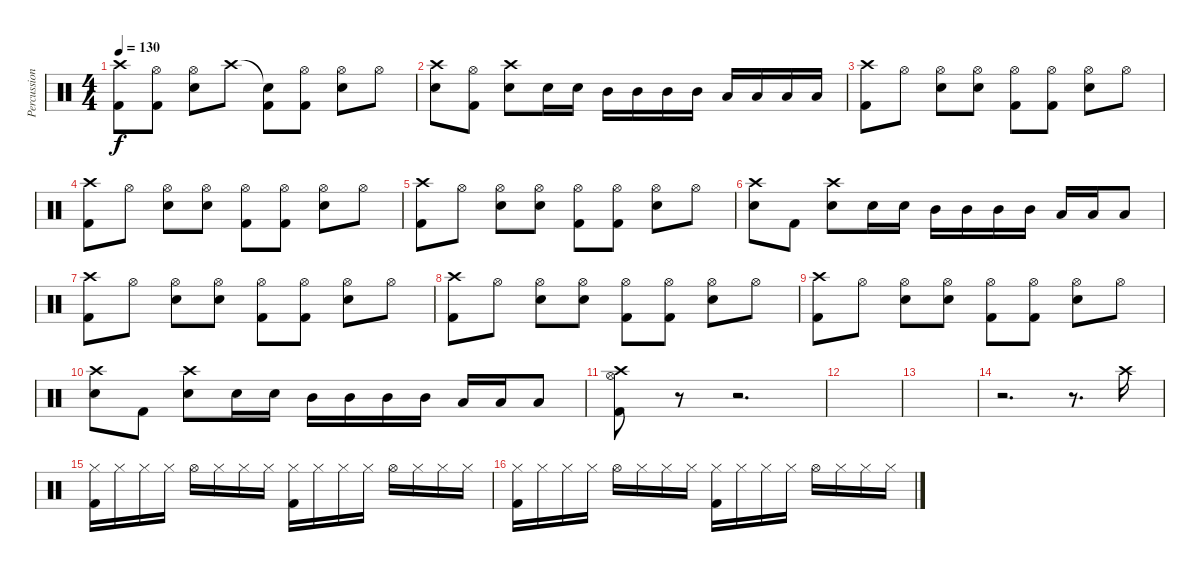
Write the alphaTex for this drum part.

\track ("Percussion" "Percussion") {instrument percussion}
\staff {score}
\articulation defaults
\ts (4 4)
\tempo 130
\clef neutral
\ks c
("Crash high (hit)" "Kick (hit) 2").8{dy f} ("Hi-Hat (open)" "Kick (hit) 2").8 ("Hi-Hat (open)" "Snare (hit) 2").8 "Crash high (hit)".8 ("Snare (hit)"{t} "Kick (hit) 2").8 ("Hi-Hat (open)" "Kick (hit) 2").8 ("Hi-Hat (open)" "Snare (hit) 2").8 "Hi-Hat (open)".8 |
("Crash high (hit)" "Snare (hit) 2").8 ("Hi-Hat (open)" "Kick (hit) 2").8 ("Crash high (hit)" "Snare (hit) 2").8 "Snare (hit) 2".16 "Snare (hit) 2".16 "Mid Tom (hit)".16 "Mid Tom (hit)".16 "Mid Tom (hit)".16 "Mid Tom (hit)".16 "Low Tom (hit)".16 "Low Tom (hit)".16 "Low Tom (hit)".16 "Low Tom (hit)".16 |
("Crash high (hit)" "Kick (hit) 2").8 "Hi-Hat (open)".8 ("Hi-Hat (open)" "Snare (hit) 2").8 ("Hi-Hat (open)" "Snare (hit) 2").8 ("Hi-Hat (open)" "Kick (hit) 2").8 ("Hi-Hat (open)" "Kick (hit) 2").8 ("Hi-Hat (open)" "Snare (hit) 2").8 "Hi-Hat (open)".8 |
("Crash high (hit)" "Kick (hit) 2").8 "Hi-Hat (open)".8 ("Hi-Hat (open)" "Snare (hit) 2").8 ("Hi-Hat (open)" "Snare (hit) 2").8 ("Hi-Hat (open)" "Kick (hit) 2").8 ("Hi-Hat (open)" "Kick (hit) 2").8 ("Hi-Hat (open)" "Snare (hit) 2").8 "Hi-Hat (open)".8 |
("Crash high (hit)" "Kick (hit) 2").8 "Hi-Hat (open)".8 ("Hi-Hat (open)" "Snare (hit) 2").8 ("Hi-Hat (open)" "Snare (hit) 2").8 ("Hi-Hat (open)" "Kick (hit) 2").8 ("Hi-Hat (open)" "Kick (hit) 2").8 ("Hi-Hat (open)" "Snare (hit) 2").8 "Hi-Hat (open)".8 |
("Crash high (hit)" "Snare (hit) 2").8 "Kick (hit) 2".8 ("Crash high (hit)" "Snare (hit) 2").8 "Snare (hit) 2".16 "Snare (hit) 2".16 "Mid Tom (hit)".16 "Mid Tom (hit)".16 "Mid Tom (hit)".16 "Mid Tom (hit)".16 "Low Tom (hit)".16 "Low Tom (hit)".16 "Low Tom (hit)".8 |
("Crash high (hit)" "Kick (hit) 2").8 "Hi-Hat (open)".8 ("Hi-Hat (open)" "Snare (hit) 2").8 ("Hi-Hat (open)" "Snare (hit) 2").8 ("Hi-Hat (open)" "Kick (hit) 2").8 ("Hi-Hat (open)" "Kick (hit) 2").8 ("Hi-Hat (open)" "Snare (hit) 2").8 "Hi-Hat (open)".8 |
("Crash high (hit)" "Kick (hit) 2").8 "Hi-Hat (open)".8 ("Hi-Hat (open)" "Snare (hit) 2").8 ("Hi-Hat (open)" "Snare (hit) 2").8 ("Hi-Hat (open)" "Kick (hit) 2").8 ("Hi-Hat (open)" "Kick (hit) 2").8 ("Hi-Hat (open)" "Snare (hit) 2").8 "Hi-Hat (open)".8 |
("Crash high (hit)" "Kick (hit) 2").8 "Hi-Hat (open)".8 ("Hi-Hat (open)" "Snare (hit) 2").8 ("Hi-Hat (open)" "Snare (hit) 2").8 ("Hi-Hat (open)" "Kick (hit) 2").8 ("Hi-Hat (open)" "Kick (hit) 2").8 ("Hi-Hat (open)" "Snare (hit) 2").8 "Hi-Hat (open)".8 |
("Crash high (hit)" "Snare (hit) 2").8 "Kick (hit) 2".8 ("Crash high (hit)" "Snare (hit) 2").8 "Snare (hit) 2".16 "Snare (hit) 2".16 "Mid Tom (hit)".16 "Mid Tom (hit)".16 "Mid Tom (hit)".16 "Mid Tom (hit)".16 "Low Tom (hit)".16 "Low Tom (hit)".16 "Low Tom (hit)".8 |
("Crash high (hit)" "Hi-Hat (open)" "Kick (hit) 2").8 r.8 r.2{d} |
|
|
r.2{d} r.8{d} "Crash high (hit)".16 |
("Hi-Hat (closed)" "Kick (hit) 2").16 "Hi-Hat (closed)".16 "Hi-Hat (closed)".16 "Hi-Hat (closed)".16 "Hi-Hat (open)".16 "Hi-Hat (closed)".16 "Hi-Hat (closed)".16 "Hi-Hat (closed)".16 ("Hi-Hat (closed)" "Kick (hit) 2").16 "Hi-Hat (closed)".16 "Hi-Hat (closed)".16 "Hi-Hat (closed)".16 "Hi-Hat (open)".16 "Hi-Hat (closed)".16 "Hi-Hat (closed)".16 "Hi-Hat (closed)".16 |
("Hi-Hat (closed)" "Kick (hit) 2").16 "Hi-Hat (closed)".16 "Hi-Hat (closed)".16 "Hi-Hat (closed)".16 "Hi-Hat (open)".16 "Hi-Hat (closed)".16 "Hi-Hat (closed)".16 "Hi-Hat (closed)".16 ("Hi-Hat (closed)" "Kick (hit) 2").16 "Hi-Hat (closed)".16 "Hi-Hat (closed)".16 "Hi-Hat (closed)".16 "Hi-Hat (open)".16 "Hi-Hat (closed)".16 "Hi-Hat (closed)".16 "Hi-Hat (closed)".16
